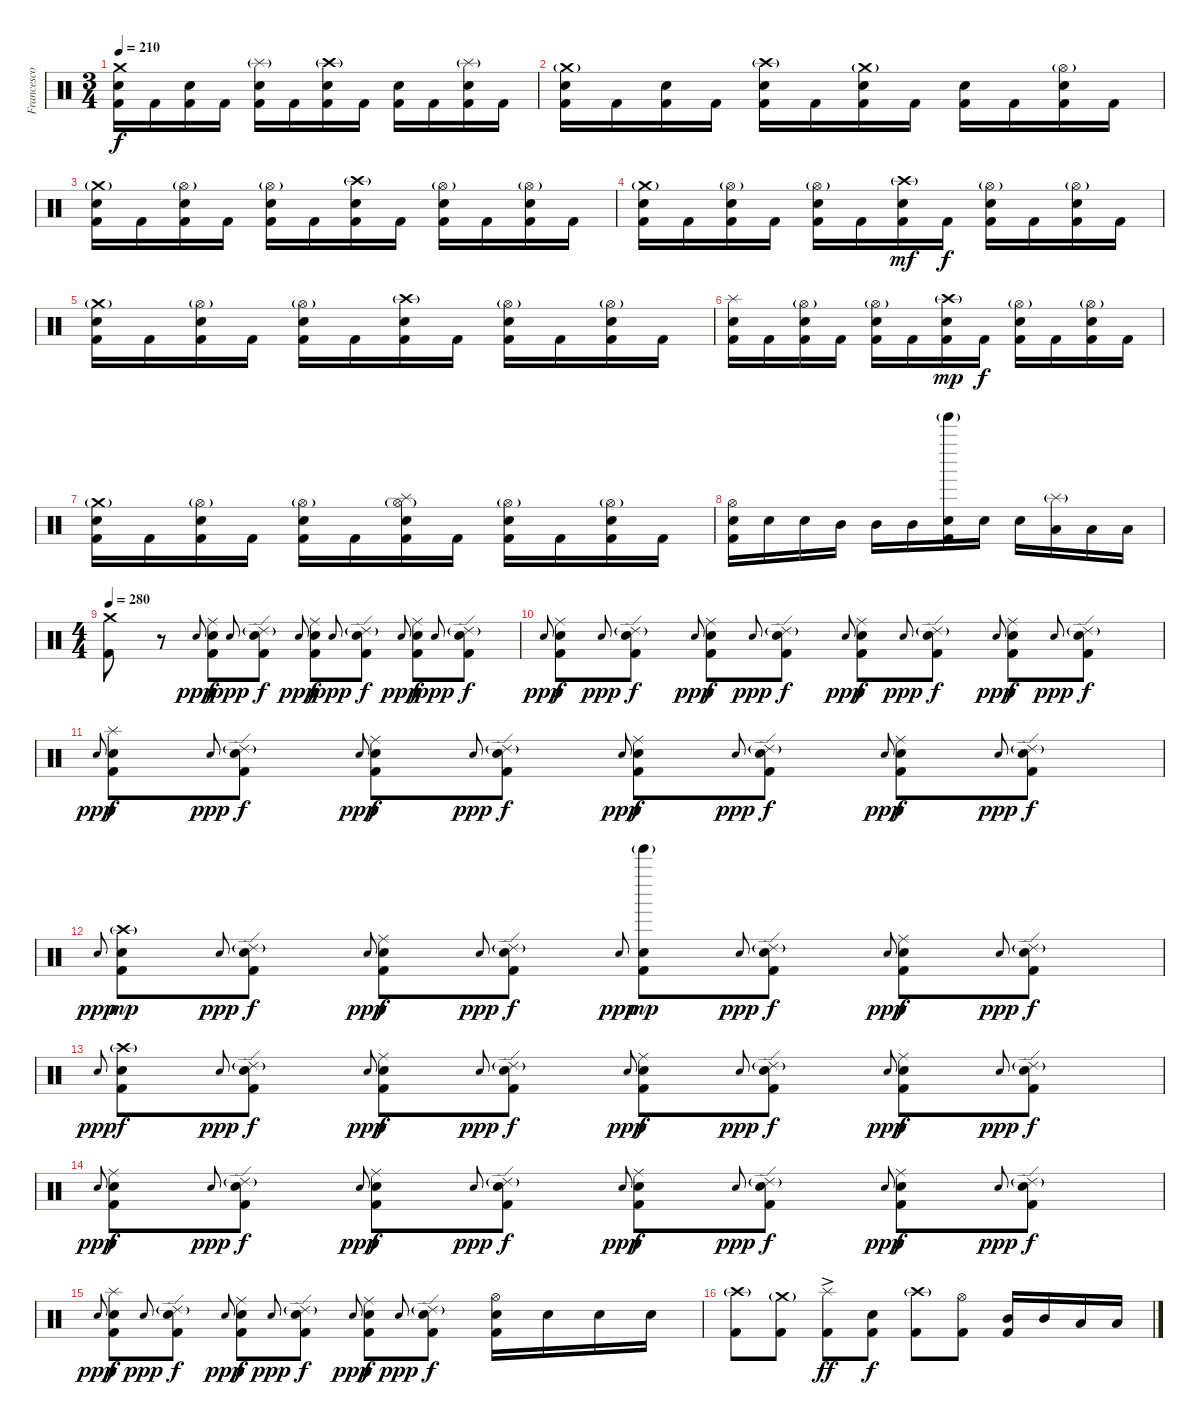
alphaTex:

\track ("Francesco Ferrini" "Francesco ") {instrument percussion}
\staff {score}
\articulation defaults
\ts (3 4)
\tempo 210
\clef neutral
\ks c
("Crash medium (hit)" "Electric Snare (hit)" "Kick (hit) 2").16{dy f} "Kick (hit) 2".16 ("Electric Snare (hit)" "Kick (hit) 2").16 "Kick (hit) 2".16 ("Splash (hit)"{g} "Electric Snare (hit)" "Kick (hit) 2").16 "Kick (hit) 2".16 ("Crash high (hit)"{g} "Electric Snare (hit)" "Kick (hit) 2").16 "Kick (hit) 2".16 ("Electric Snare (hit)" "Kick (hit) 2").16 "Kick (hit) 2".16 ("Splash (hit)"{g} "Electric Snare (hit)" "Kick (hit) 2").16 "Kick (hit) 2".16 |
("Crash medium (hit)"{g} "Electric Snare (hit)" "Kick (hit) 2").16 "Kick (hit) 2".16 ("Electric Snare (hit)" "Kick (hit) 2").16 "Kick (hit) 2".16 ("Crash high (hit)"{g} "Electric Snare (hit)" "Kick (hit) 2").16 "Kick (hit) 2".16 ("Crash medium (hit)"{g} "Electric Snare (hit)" "Kick (hit) 2").16 "Kick (hit) 2".16 ("Electric Snare (hit)" "Kick (hit) 2").16 "Kick (hit) 2".16 ("Hi-Hat (open)"{g} "Electric Snare (hit)" "Kick (hit) 2").16 "Kick (hit) 2".16 |
("Crash medium (hit)"{g} "Electric Snare (hit)" "Kick (hit) 2").16 "Kick (hit) 2".16 ("Hi-Hat (open)"{g} "Electric Snare (hit)" "Kick (hit) 2").16 "Kick (hit) 2".16 ("Hi-Hat (open)"{g} "Electric Snare (hit)" "Kick (hit) 2").16 "Kick (hit) 2".16 ("Crash high (hit)"{g} "Electric Snare (hit)" "Kick (hit) 2").16 "Kick (hit) 2".16 ("Hi-Hat (open)"{g} "Electric Snare (hit)" "Kick (hit) 2").16 "Kick (hit) 2".16 ("Hi-Hat (open)"{g} "Electric Snare (hit)" "Kick (hit) 2").16 "Kick (hit) 2".16 |
("Crash medium (hit)"{g} "Electric Snare (hit)" "Kick (hit) 2").16 "Kick (hit) 2".16 ("Hi-Hat (open)"{g} "Electric Snare (hit)" "Kick (hit) 2").16 "Kick (hit) 2".16 ("Hi-Hat (open)"{g} "Electric Snare (hit)" "Kick (hit) 2").16 "Kick (hit) 2".16 ("Crash high (hit)"{g} "Electric Snare (hit)" "Kick (hit) 2").16{dy mf} "Kick (hit) 2".16{dy f} ("Hi-Hat (open)"{g} "Electric Snare (hit)" "Kick (hit) 2").16 "Kick (hit) 2".16 ("Hi-Hat (open)"{g} "Electric Snare (hit)" "Kick (hit) 2").16 "Kick (hit) 2".16 |
("Crash medium (hit)"{g} "Electric Snare (hit)" "Kick (hit) 2").16 "Kick (hit) 2".16 ("Hi-Hat (open)"{g} "Electric Snare (hit)" "Kick (hit) 2").16 "Kick (hit) 2".16 ("Hi-Hat (open)"{g} "Electric Snare (hit)" "Kick (hit) 2").16 "Kick (hit) 2".16 ("Crash high (hit)"{g} "Electric Snare (hit)" "Kick (hit) 2").16 "Kick (hit) 2".16 ("Hi-Hat (open)"{g} "Electric Snare (hit)" "Kick (hit) 2").16 "Kick (hit) 2".16 ("Hi-Hat (open)"{g} "Electric Snare (hit)" "Kick (hit) 2").16 "Kick (hit) 2".16 |
("Splash (hit)" "Electric Snare (hit)" "Kick (hit) 2").16 "Kick (hit) 2".16 ("Hi-Hat (open)"{g} "Electric Snare (hit)" "Kick (hit) 2").16 "Kick (hit) 2".16 ("Hi-Hat (open)"{g} "Electric Snare (hit)" "Kick (hit) 2").16 "Kick (hit) 2".16 ("Crash high (hit)"{g} "Electric Snare (hit)" "Kick (hit) 2").16{dy mp} "Kick (hit) 2".16{dy f} ("Hi-Hat (open)"{g} "Electric Snare (hit)" "Kick (hit) 2").16 "Kick (hit) 2".16 ("Hi-Hat (open)"{g} "Electric Snare (hit)" "Kick (hit) 2").16 "Kick (hit) 2".16 |
("Crash medium (hit)"{g} "Electric Snare (hit)" "Kick (hit) 2").16 "Kick (hit) 2".16 ("Hi-Hat (open)"{g} "Electric Snare (hit)" "Kick (hit) 2").16 "Kick (hit) 2".16 ("Hi-Hat (open)"{g} "Electric Snare (hit)" "Kick (hit) 2").16 "Kick (hit) 2".16 ("Splash (hit)" "Hi-Hat (open)"{g} "Electric Snare (hit)" "Kick (hit) 2").16 "Kick (hit) 2".16 ("Hi-Hat (open)"{g} "Electric Snare (hit)" "Kick (hit) 2").16 "Kick (hit) 2".16 ("Hi-Hat (open)"{g} "Electric Snare (hit)" "Kick (hit) 2").16 "Kick (hit) 2".16 |
("Hi-Hat (open)" "Electric Snare (hit)" "Kick (hit) 2").16 "Electric Snare (hit)".16 "Electric Snare (hit)".16 "Mid Tom (hit)".16 "Mid Tom (hit)".16 "Mid Tom (hit)".16 ("Tinkle Bell (hit)"{g} "Electric Snare (hit)" "Kick (hit) 2").16 "Electric Snare (hit)".16 "Electric Snare (hit)".16 ("Splash (hit)"{g} "Low Tom (hit)").16 "Low Tom (hit)".16 "Low Tom (hit)".16 |
\ts (4 4)
\tempo 285
\tempo 280
("Crash medium (hit)" "Kick (hit) 2").8 r.8 "Electric Snare (hit)"{h}.8{gr onbeat dy ppp} ("Ride (middle)" "Electric Snare (hit)" "Kick (hit) 2").8{dy f} "Electric Snare (hit)"{h}.8{gr onbeat dy ppp} ("Ride (edge) 2"{g} "Electric Snare (hit)" "Kick (hit) 2").8{dy f} "Electric Snare (hit)"{h}.8{gr onbeat dy ppp} ("Ride (middle)" "Electric Snare (hit)" "Kick (hit) 2").8{dy f} "Electric Snare (hit)"{h}.8{gr onbeat dy ppp} ("Ride (edge) 2"{g} "Electric Snare (hit)" "Kick (hit) 2").8{dy f} "Electric Snare (hit)"{h}.8{gr onbeat dy ppp} ("Ride (middle)" "Electric Snare (hit)" "Kick (hit) 2").8{dy f} "Electric Snare (hit)"{h}.8{gr onbeat dy ppp} ("Ride (edge) 2"{g} "Electric Snare (hit)" "Kick (hit) 2").8{dy f} |
"Electric Snare (hit)"{h}.8{gr onbeat dy ppp} ("Ride (middle)" "Electric Snare (hit)" "Kick (hit) 2").8{dy f} "Electric Snare (hit)"{h}.8{gr onbeat dy ppp} ("Ride (edge) 2"{g} "Electric Snare (hit)" "Kick (hit) 2").8{dy f} "Electric Snare (hit)"{h}.8{gr onbeat dy ppp} ("Ride (middle)" "Electric Snare (hit)" "Kick (hit) 2").8{dy f} "Electric Snare (hit)"{h}.8{gr onbeat dy ppp} ("Ride (edge) 2"{g} "Electric Snare (hit)" "Kick (hit) 2").8{dy f} "Electric Snare (hit)"{h}.8{gr onbeat dy ppp} ("Ride (middle)" "Electric Snare (hit)" "Kick (hit) 2").8{dy f} "Electric Snare (hit)"{h}.8{gr onbeat dy ppp} ("Ride (edge) 2"{g} "Electric Snare (hit)" "Kick (hit) 2").8{dy f} "Electric Snare (hit)"{h}.8{gr onbeat dy ppp} ("Ride (middle)" "Electric Snare (hit)" "Kick (hit) 2").8{dy f} "Electric Snare (hit)"{h}.8{gr onbeat dy ppp} ("Ride (edge) 2"{g} "Electric Snare (hit)" "Kick (hit) 2").8{dy f} |
"Electric Snare (hit)"{h}.8{gr onbeat dy ppp} ("Splash (hit)" "Electric Snare (hit)" "Kick (hit) 2").8{dy f} "Electric Snare (hit)"{h}.8{gr onbeat dy ppp} ("Ride (edge) 2"{g} "Electric Snare (hit)" "Kick (hit) 2").8{dy f} "Electric Snare (hit)"{h}.8{gr onbeat dy ppp} ("Ride (middle)" "Electric Snare (hit)" "Kick (hit) 2").8{dy f} "Electric Snare (hit)"{h}.8{gr onbeat dy ppp} ("Ride (edge) 2"{g} "Electric Snare (hit)" "Kick (hit) 2").8{dy f} "Electric Snare (hit)"{h}.8{gr onbeat dy ppp} ("Ride (middle)" "Electric Snare (hit)" "Kick (hit) 2").8{dy f} "Electric Snare (hit)"{h}.8{gr onbeat dy ppp} ("Ride (edge) 2"{g} "Electric Snare (hit)" "Kick (hit) 2").8{dy f} "Electric Snare (hit)"{h}.8{gr onbeat dy ppp} ("Ride (middle)" "Electric Snare (hit)" "Kick (hit) 2").8{dy f} "Electric Snare (hit)"{h}.8{gr onbeat dy ppp} ("Ride (edge) 2"{g} "Electric Snare (hit)" "Kick (hit) 2").8{dy f} |
"Electric Snare (hit)"{h}.8{gr onbeat dy ppp} ("Crash high (hit)"{g} "Electric Snare (hit)" "Kick (hit) 2").8{dy mp} "Electric Snare (hit)"{h}.8{gr onbeat dy ppp} ("Ride (edge) 2"{g} "Electric Snare (hit)" "Kick (hit) 2").8{dy f} "Electric Snare (hit)"{h}.8{gr onbeat dy ppp} ("Ride (middle)" "Electric Snare (hit)" "Kick (hit) 2").8{dy f} "Electric Snare (hit)"{h}.8{gr onbeat dy ppp} ("Ride (edge) 2"{g} "Electric Snare (hit)" "Kick (hit) 2").8{dy f} "Electric Snare (hit)"{h}.8{gr onbeat dy ppp} ("Tinkle Bell (hit)"{g} "Electric Snare (hit)" "Kick (hit) 2").8{dy mp} "Electric Snare (hit)"{h}.8{gr onbeat dy ppp} ("Ride (edge) 2"{g} "Electric Snare (hit)" "Kick (hit) 2").8{dy f} "Electric Snare (hit)"{h}.8{gr onbeat dy ppp} ("Ride (middle)" "Electric Snare (hit)" "Kick (hit) 2").8{dy f} "Electric Snare (hit)"{h}.8{gr onbeat dy ppp} ("Ride (edge) 2"{g} "Electric Snare (hit)" "Kick (hit) 2").8{dy f} |
"Electric Snare (hit)"{h}.8{gr onbeat dy ppp} ("Crash high (hit)"{g} "Electric Snare (hit)" "Kick (hit) 2").8{dy f} "Electric Snare (hit)"{h}.8{gr onbeat dy ppp} ("Ride (edge) 2"{g} "Electric Snare (hit)" "Kick (hit) 2").8{dy f} "Electric Snare (hit)"{h}.8{gr onbeat dy ppp} ("Ride (middle)" "Electric Snare (hit)" "Kick (hit) 2").8{dy f} "Electric Snare (hit)"{h}.8{gr onbeat dy ppp} ("Ride (edge) 2"{g} "Electric Snare (hit)" "Kick (hit) 2").8{dy f} "Electric Snare (hit)"{h}.8{gr onbeat dy ppp} ("Ride (middle)" "Electric Snare (hit)" "Kick (hit) 2").8{dy f} "Electric Snare (hit)"{h}.8{gr onbeat dy ppp} ("Ride (edge) 2"{g} "Electric Snare (hit)" "Kick (hit) 2").8{dy f} "Electric Snare (hit)"{h}.8{gr onbeat dy ppp} ("Ride (middle)" "Electric Snare (hit)" "Kick (hit) 2").8{dy f} "Electric Snare (hit)"{h}.8{gr onbeat dy ppp} ("Ride (edge) 2"{g} "Electric Snare (hit)" "Kick (hit) 2").8{dy f} |
"Electric Snare (hit)"{h}.8{gr onbeat dy ppp} ("Ride (middle)" "Electric Snare (hit)" "Kick (hit) 2").8{dy f} "Electric Snare (hit)"{h}.8{gr onbeat dy ppp} ("Ride (edge) 2"{g} "Electric Snare (hit)" "Kick (hit) 2").8{dy f} "Electric Snare (hit)"{h}.8{gr onbeat dy ppp} ("Ride (middle)" "Electric Snare (hit)" "Kick (hit) 2").8{dy f} "Electric Snare (hit)"{h}.8{gr onbeat dy ppp} ("Ride (edge) 2"{g} "Electric Snare (hit)" "Kick (hit) 2").8{dy f} "Electric Snare (hit)"{h}.8{gr onbeat dy ppp} ("Ride (middle)" "Electric Snare (hit)" "Kick (hit) 2").8{dy f} "Electric Snare (hit)"{h}.8{gr onbeat dy ppp} ("Ride (edge) 2"{g} "Electric Snare (hit)" "Kick (hit) 2").8{dy f} "Electric Snare (hit)"{h}.8{gr onbeat dy ppp} ("Ride (middle)" "Electric Snare (hit)" "Kick (hit) 2").8{dy f} "Electric Snare (hit)"{h}.8{gr onbeat dy ppp} ("Ride (edge) 2"{g} "Electric Snare (hit)" "Kick (hit) 2").8{dy f} |
"Electric Snare (hit)"{h}.8{gr onbeat dy ppp} ("Splash (hit)" "Electric Snare (hit)" "Kick (hit) 2").8{dy f} "Electric Snare (hit)"{h}.8{gr onbeat dy ppp} ("Ride (edge) 2"{g} "Electric Snare (hit)" "Kick (hit) 2").8{dy f} "Electric Snare (hit)"{h}.8{gr onbeat dy ppp} ("Ride (middle)" "Electric Snare (hit)" "Kick (hit) 2").8{dy f} "Electric Snare (hit)"{h}.8{gr onbeat dy ppp} ("Ride (edge) 2"{g} "Electric Snare (hit)" "Kick (hit) 2").8{dy f} "Electric Snare (hit)"{h}.8{gr onbeat dy ppp} ("Ride (middle)" "Electric Snare (hit)" "Kick (hit) 2").8{dy f} "Electric Snare (hit)"{h}.8{gr onbeat dy ppp} ("Ride (edge) 2"{g} "Electric Snare (hit)" "Kick (hit) 2").8{dy f} ("Hi-Hat (open)" "Electric Snare (hit)" "Kick (hit) 2").16 "Electric Snare (hit)".16 "Electric Snare (hit)".16 "Electric Snare (hit)".16 |
("Crash high (hit)"{g} "Kick (hit) 2").8 ("Crash medium (hit)"{g} "Kick (hit) 2").8 ("Splash (hit)"{ac} "Kick (hit) 2").8{dy ff} ("Electric Snare (hit)" "Kick (hit) 2").8{dy f} ("Crash high (hit)"{g} "Kick (hit) 2").8 ("Hi-Hat (open)" "Kick (hit) 2").8 ("Mid Tom (hit)" "Kick (hit) 2").16 "Mid Tom (hit)".16 "Low Tom (hit)".16 "Low Tom (hit)".16
